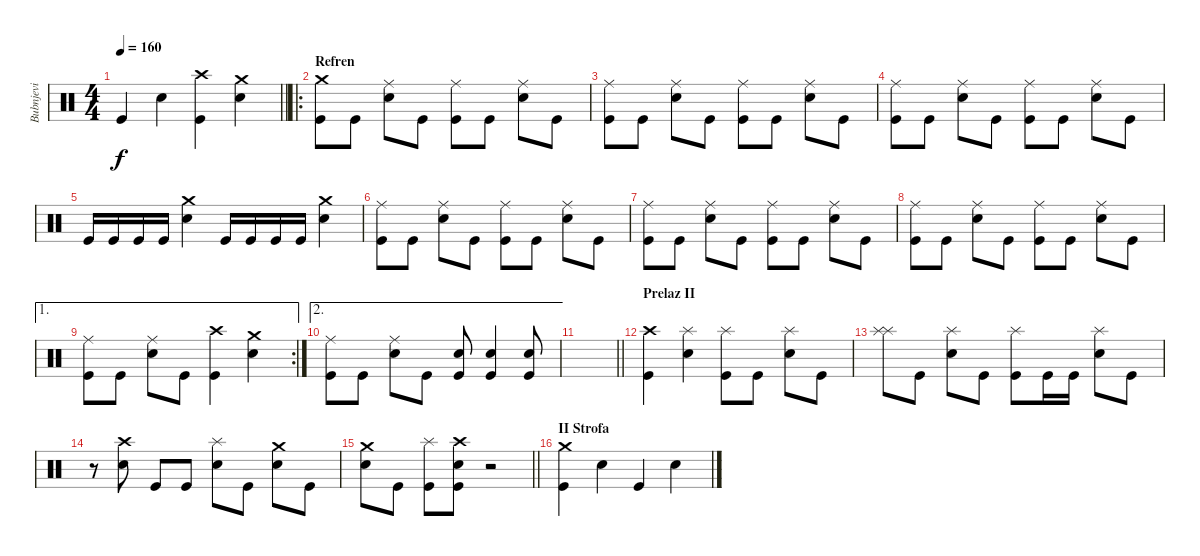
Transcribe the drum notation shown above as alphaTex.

\track ("Bubnjevi" "Bubnjevi") {instrument percussion}
\staff {score}
\articulation defaults
\ts (4 4)
\tempo 160
\clef neutral
\barLineRight lightlight
\ks c "Kick (hit)".4{dy f} "Snare (hit) 2".4
("Kick (hit)" "Crash high (hit)").4 ("Snare (hit) 2" "Crash medium (hit)").4 |
\ro
\section ("" "Refren")
("Kick (hit)" "Crash medium (hit)").8 "Kick (hit)".8 ("Snare (hit) 2" "Ride (middle)").8 "Kick (hit)".8 ("Kick (hit)" "Ride (middle)").8 "Kick (hit)".8 ("Snare (hit) 2" "Ride (middle)").8 "Kick (hit)".8 |
("Kick (hit)" "Ride (middle)").8 "Kick (hit)".8 ("Snare (hit) 2" "Ride (middle)").8 "Kick (hit)".8 ("Kick (hit)" "Ride (middle)").8 "Kick (hit)".8 ("Snare (hit) 2" "Ride (middle)").8 "Kick (hit)".8 |
("Kick (hit)" "Ride (middle)").8 "Kick (hit)".8 ("Snare (hit) 2" "Ride (middle)").8 "Kick (hit)".8 ("Kick (hit)" "Ride (middle)").8 "Kick (hit)".8 ("Snare (hit) 2" "Ride (middle)").8 "Kick (hit)".8 |
"Kick (hit)".16 "Kick (hit)".16 "Kick (hit)".16 "Kick (hit)".16 ("Snare (hit) 2" "Crash medium (hit)").4 "Kick (hit)".16 "Kick (hit)".16 "Kick (hit)".16 "Kick (hit)".16 ("Snare (hit) 2" "Crash medium (hit)").4 |
("Kick (hit)" "Ride (middle)").8 "Kick (hit)".8 ("Snare (hit) 2" "Ride (middle)").8 "Kick (hit)".8 ("Kick (hit)" "Ride (middle)").8 "Kick (hit)".8 ("Snare (hit) 2" "Ride (middle)").8 "Kick (hit)".8 |
("Kick (hit)" "Ride (middle)").8 "Kick (hit)".8 ("Snare (hit) 2" "Ride (middle)").8 "Kick (hit)".8 ("Kick (hit)" "Ride (middle)").8 "Kick (hit)".8 ("Snare (hit) 2" "Ride (middle)").8 "Kick (hit)".8 |
("Kick (hit)" "Ride (middle)").8 "Kick (hit)".8 ("Snare (hit) 2" "Ride (middle)").8 "Kick (hit)".8 ("Kick (hit)" "Ride (middle)").8 "Kick (hit)".8 ("Snare (hit) 2" "Ride (middle)").8 "Kick (hit)".8 |
\ae 1
\rc 2
("Kick (hit)" "Ride (middle)").8 "Kick (hit)".8 ("Snare (hit) 2" "Ride (middle)").8 "Kick (hit)".8 ("Kick (hit)" "Crash high (hit)").4 ("Snare (hit) 2" "Crash medium (hit)").4 |
\ae 2
("Kick (hit)" "Ride (middle)").8 "Kick (hit)".8 ("Snare (hit) 2" "Ride (middle)").8 "Kick (hit)".8 ("Kick (hit)" "Snare (hit) 2").8 ("Snare (hit) 2" "Kick (hit)").4 ("Kick (hit)" "Snare (hit) 2").8 |
\barLineRight lightlight
|
\section ("" "Prelaz II")
("Kick (hit)" "Crash high (hit)").4 ("Snare (hit) 2" "Splash (hit)").4 ("Kick (hit)" "Splash (hit)").8 "Kick (hit)".8 ("Snare (hit) 2" "Splash (hit)").8 "Kick (hit)".8 |
("Splash (hit)" "Splash (hit)").8 "Kick (hit)".8 ("Snare (hit) 2" "Splash (hit)").8 "Kick (hit)".8 ("Kick (hit)" "Splash (hit)").8 "Kick (hit)".16 "Kick (hit)".16 ("Snare (hit) 2" "Splash (hit)").8 "Kick (hit)".8 |
r.8 ("Snare (hit) 2" "Crash high (hit)").8 "Kick (hit)".8 "Kick (hit)".8 ("Snare (hit) 2" "Splash (hit)").8 "Kick (hit)".8 ("Snare (hit) 2" "Crash medium (hit)").8 "Kick (hit)".8 |
\barLineRight lightlight
("Snare (hit) 2" "Crash medium (hit)").8 "Kick (hit)".8 ("Kick (hit)" "Splash (hit)").8 ("Kick (hit)" "Snare (hit) 2" "Crash high (hit)").8 r.2 |
\section ("" "II Strofa")
("Crash medium (hit)" "Kick (hit)").4 "Snare (hit) 2".4 "Kick (hit)".4 "Snare (hit) 2".4
